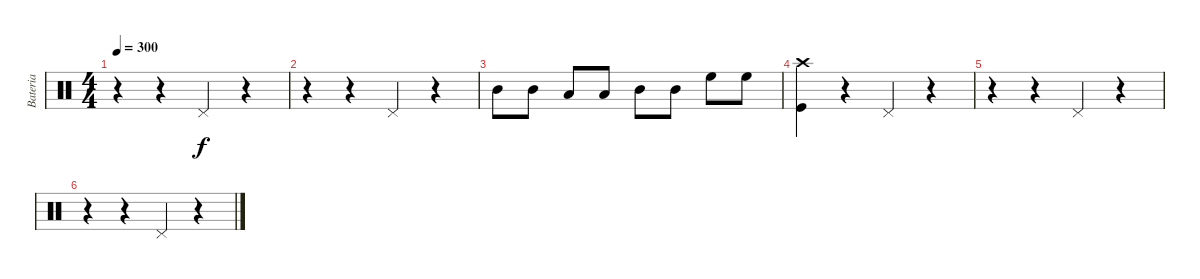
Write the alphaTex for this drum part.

\track ("Bateria" "Bateria") {instrument percussion}
\staff {score}
\articulation defaults
\ts (4 4)
\tempo 300
\clef neutral
\ks c
r.4{dy f} r.4 "Pedal Hi-Hat (hit)".4 r.4 |
r.4 r.4 "Pedal Hi-Hat (hit)".4 r.4 |
"Mid Tom (hit)".8 "Mid Tom (hit)".8 "Low Tom (hit)".8 "Low Tom (hit)".8 "Mid Tom (hit)".8 "Mid Tom (hit)".8 "High Floor Tom (hit)".8 "High Floor Tom (hit)".8 |
("Crash high (hit)" "Kick (hit)").4 r.4 "Pedal Hi-Hat (hit)".4 r.4 |
r.4 r.4 "Pedal Hi-Hat (hit)".4 r.4 |
r.4 r.4 "Pedal Hi-Hat (hit)".4 r.4
